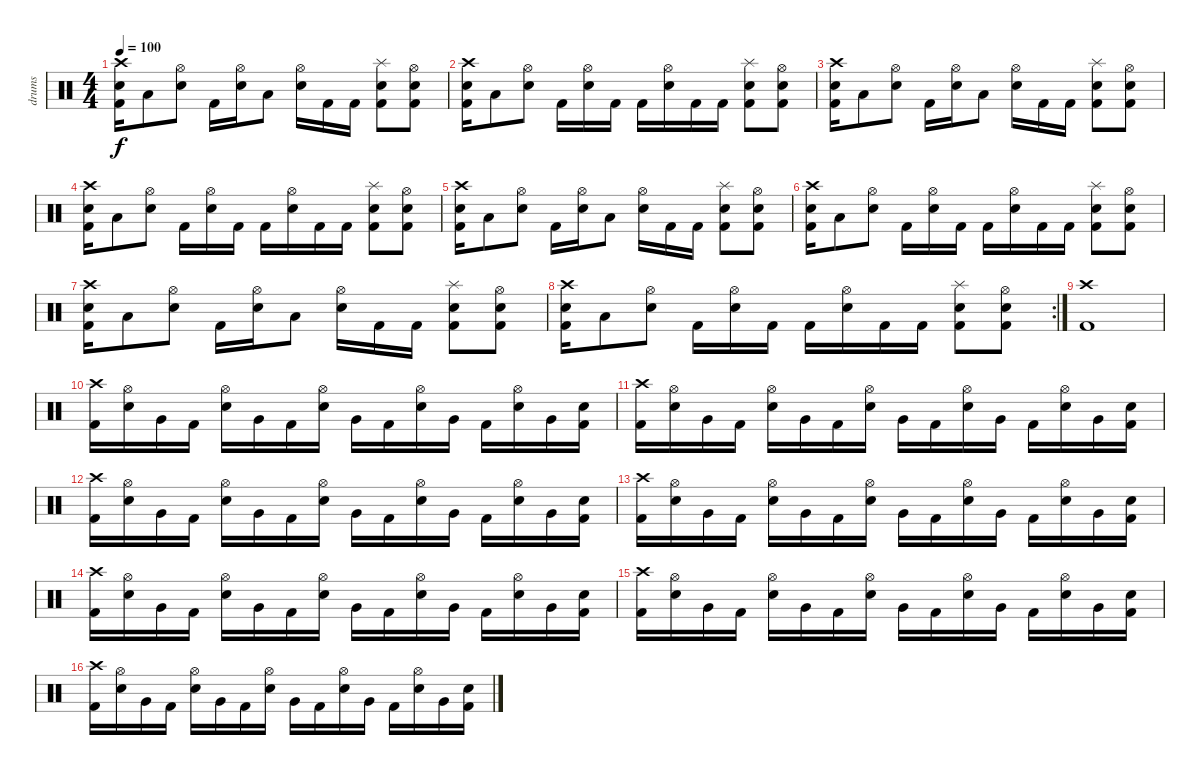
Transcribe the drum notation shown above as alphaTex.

\track ("drums" "drums") {instrument percussion}
\staff {score}
\articulation defaults
\ts (4 4)
\tempo 100
\clef neutral
\ks c
("Crash high (hit)" "Electric Snare (hit)" "Kick (hit) 2").16{dy f} "Low Floor Tom (hit)".8 ("Hi-Hat (open)" "Electric Snare (hit)").8 "Kick (hit) 2".16 ("Hi-Hat (open)" "Electric Snare (hit)").16 "Low Floor Tom (hit)".8 ("Hi-Hat (open)" "Electric Snare (hit)").16 "Kick (hit) 2".16 "Kick (hit) 2".16 ("Splash (hit)" "Electric Snare (hit)" "Kick (hit) 2").8 ("Hi-Hat (open)" "Electric Snare (hit)" "Kick (hit) 2").8 |
("Crash high (hit)" "Electric Snare (hit)" "Kick (hit) 2").16 "Low Floor Tom (hit)".8 ("Hi-Hat (open)" "Electric Snare (hit)").8 "Kick (hit) 2".16 ("Hi-Hat (open)" "Electric Snare (hit)").16 "Kick (hit) 2".16 "Kick (hit) 2".16 ("Hi-Hat (open)" "Electric Snare (hit)").16 "Kick (hit) 2".16 "Kick (hit) 2".16 ("Splash (hit)" "Electric Snare (hit)" "Kick (hit) 2").8 ("Hi-Hat (open)" "Electric Snare (hit)" "Kick (hit) 2").8 |
("Crash high (hit)" "Electric Snare (hit)" "Kick (hit) 2").16 "Low Floor Tom (hit)".8 ("Hi-Hat (open)" "Electric Snare (hit)").8 "Kick (hit) 2".16 ("Hi-Hat (open)" "Electric Snare (hit)").16 "Low Floor Tom (hit)".8 ("Hi-Hat (open)" "Electric Snare (hit)").16 "Kick (hit) 2".16 "Kick (hit) 2".16 ("Splash (hit)" "Electric Snare (hit)" "Kick (hit) 2").8 ("Hi-Hat (open)" "Electric Snare (hit)" "Kick (hit) 2").8 |
("Crash high (hit)" "Electric Snare (hit)" "Kick (hit) 2").16 "Low Floor Tom (hit)".8 ("Hi-Hat (open)" "Electric Snare (hit)").8 "Kick (hit) 2".16 ("Hi-Hat (open)" "Electric Snare (hit)").16 "Kick (hit) 2".16 "Kick (hit) 2".16 ("Hi-Hat (open)" "Electric Snare (hit)").16 "Kick (hit) 2".16 "Kick (hit) 2".16 ("Splash (hit)" "Electric Snare (hit)" "Kick (hit) 2").8 ("Hi-Hat (open)" "Electric Snare (hit)" "Kick (hit) 2").8 |
("Crash high (hit)" "Electric Snare (hit)" "Kick (hit) 2").16 "Low Floor Tom (hit)".8 ("Hi-Hat (open)" "Electric Snare (hit)").8 "Kick (hit) 2".16 ("Hi-Hat (open)" "Electric Snare (hit)").16 "Low Floor Tom (hit)".8 ("Hi-Hat (open)" "Electric Snare (hit)").16 "Kick (hit) 2".16 "Kick (hit) 2".16 ("Splash (hit)" "Electric Snare (hit)" "Kick (hit) 2").8 ("Hi-Hat (open)" "Electric Snare (hit)" "Kick (hit) 2").8 |
("Crash high (hit)" "Electric Snare (hit)" "Kick (hit) 2").16 "Low Floor Tom (hit)".8 ("Hi-Hat (open)" "Electric Snare (hit)").8 "Kick (hit) 2".16 ("Hi-Hat (open)" "Electric Snare (hit)").16 "Kick (hit) 2".16 "Kick (hit) 2".16 ("Hi-Hat (open)" "Electric Snare (hit)").16 "Kick (hit) 2".16 "Kick (hit) 2".16 ("Splash (hit)" "Electric Snare (hit)" "Kick (hit) 2").8 ("Hi-Hat (open)" "Electric Snare (hit)" "Kick (hit) 2").8 |
("Crash high (hit)" "Electric Snare (hit)" "Kick (hit) 2").16 "Low Floor Tom (hit)".8 ("Hi-Hat (open)" "Electric Snare (hit)").8 "Kick (hit) 2".16 ("Hi-Hat (open)" "Electric Snare (hit)").16 "Low Floor Tom (hit)".8 ("Hi-Hat (open)" "Electric Snare (hit)").16 "Kick (hit) 2".16 "Kick (hit) 2".16 ("Splash (hit)" "Electric Snare (hit)" "Kick (hit) 2").8 ("Hi-Hat (open)" "Electric Snare (hit)" "Kick (hit) 2").8 |
\rc 2
("Crash high (hit)" "Electric Snare (hit)" "Kick (hit) 2").16 "Low Floor Tom (hit)".8 ("Hi-Hat (open)" "Electric Snare (hit)").8 "Kick (hit) 2".16 ("Hi-Hat (open)" "Electric Snare (hit)").16 "Kick (hit) 2".16 "Kick (hit) 2".16 ("Hi-Hat (open)" "Electric Snare (hit)").16 "Kick (hit) 2".16 "Kick (hit) 2".16 ("Splash (hit)" "Electric Snare (hit)" "Kick (hit) 2").8 ("Hi-Hat (open)" "Electric Snare (hit)" "Kick (hit) 2").8 |
("Crash high (hit)" "Kick (hit) 2").1 |
("Crash high (hit)" "Kick (hit) 2").16 ("Hi-Hat (open)" "Electric Snare (hit)").16 "Very Low Tom (hit)".16 "Kick (hit) 2".16 ("Hi-Hat (open)" "Electric Snare (hit)").16 "Very Low Tom (hit)".16 "Kick (hit) 2".16 ("Hi-Hat (open)" "Electric Snare (hit)").16 "Very Low Tom (hit)".16 "Kick (hit) 2".16 ("Hi-Hat (open)" "Electric Snare (hit)").16 "Very Low Tom (hit)".16 "Kick (hit) 2".16 ("Hi-Hat (open)" "Electric Snare (hit)").16 "Very Low Tom (hit)".16 ("Electric Snare (hit)" "Kick (hit) 2").16 |
("Crash high (hit)" "Kick (hit) 2").16 ("Hi-Hat (open)" "Electric Snare (hit)").16 "Very Low Tom (hit)".16 "Kick (hit) 2".16 ("Hi-Hat (open)" "Electric Snare (hit)").16 "Very Low Tom (hit)".16 "Kick (hit) 2".16 ("Hi-Hat (open)" "Electric Snare (hit)").16 "Very Low Tom (hit)".16 "Kick (hit) 2".16 ("Hi-Hat (open)" "Electric Snare (hit)").16 "Very Low Tom (hit)".16 "Kick (hit) 2".16 ("Hi-Hat (open)" "Electric Snare (hit)").16 "Very Low Tom (hit)".16 ("Electric Snare (hit)" "Kick (hit) 2").16 |
("Crash high (hit)" "Kick (hit) 2").16 ("Hi-Hat (open)" "Electric Snare (hit)").16 "Very Low Tom (hit)".16 "Kick (hit) 2".16 ("Hi-Hat (open)" "Electric Snare (hit)").16 "Very Low Tom (hit)".16 "Kick (hit) 2".16 ("Hi-Hat (open)" "Electric Snare (hit)").16 "Very Low Tom (hit)".16 "Kick (hit) 2".16 ("Hi-Hat (open)" "Electric Snare (hit)").16 "Very Low Tom (hit)".16 "Kick (hit) 2".16 ("Hi-Hat (open)" "Electric Snare (hit)").16 "Very Low Tom (hit)".16 ("Electric Snare (hit)" "Kick (hit) 2").16 |
("Crash high (hit)" "Kick (hit) 2").16 ("Hi-Hat (open)" "Electric Snare (hit)").16 "Very Low Tom (hit)".16 "Kick (hit) 2".16 ("Hi-Hat (open)" "Electric Snare (hit)").16 "Very Low Tom (hit)".16 "Kick (hit) 2".16 ("Hi-Hat (open)" "Electric Snare (hit)").16 "Very Low Tom (hit)".16 "Kick (hit) 2".16 ("Hi-Hat (open)" "Electric Snare (hit)").16 "Very Low Tom (hit)".16 "Kick (hit) 2".16 ("Hi-Hat (open)" "Electric Snare (hit)").16 "Very Low Tom (hit)".16 ("Electric Snare (hit)" "Kick (hit) 2").16 |
("Crash high (hit)" "Kick (hit) 2").16 ("Hi-Hat (open)" "Electric Snare (hit)").16 "Very Low Tom (hit)".16 "Kick (hit) 2".16 ("Hi-Hat (open)" "Electric Snare (hit)").16 "Very Low Tom (hit)".16 "Kick (hit) 2".16 ("Hi-Hat (open)" "Electric Snare (hit)").16 "Very Low Tom (hit)".16 "Kick (hit) 2".16 ("Hi-Hat (open)" "Electric Snare (hit)").16 "Very Low Tom (hit)".16 "Kick (hit) 2".16 ("Hi-Hat (open)" "Electric Snare (hit)").16 "Very Low Tom (hit)".16 ("Electric Snare (hit)" "Kick (hit) 2").16 |
("Crash high (hit)" "Kick (hit) 2").16 ("Hi-Hat (open)" "Electric Snare (hit)").16 "Very Low Tom (hit)".16 "Kick (hit) 2".16 ("Hi-Hat (open)" "Electric Snare (hit)").16 "Very Low Tom (hit)".16 "Kick (hit) 2".16 ("Hi-Hat (open)" "Electric Snare (hit)").16 "Very Low Tom (hit)".16 "Kick (hit) 2".16 ("Hi-Hat (open)" "Electric Snare (hit)").16 "Very Low Tom (hit)".16 "Kick (hit) 2".16 ("Hi-Hat (open)" "Electric Snare (hit)").16 "Very Low Tom (hit)".16 ("Electric Snare (hit)" "Kick (hit) 2").16 |
("Crash high (hit)" "Kick (hit) 2").16 ("Hi-Hat (open)" "Electric Snare (hit)").16 "Very Low Tom (hit)".16 "Kick (hit) 2".16 ("Hi-Hat (open)" "Electric Snare (hit)").16 "Very Low Tom (hit)".16 "Kick (hit) 2".16 ("Hi-Hat (open)" "Electric Snare (hit)").16 "Very Low Tom (hit)".16 "Kick (hit) 2".16 ("Hi-Hat (open)" "Electric Snare (hit)").16 "Very Low Tom (hit)".16 "Kick (hit) 2".16 ("Hi-Hat (open)" "Electric Snare (hit)").16 "Very Low Tom (hit)".16 ("Electric Snare (hit)" "Kick (hit) 2").16
